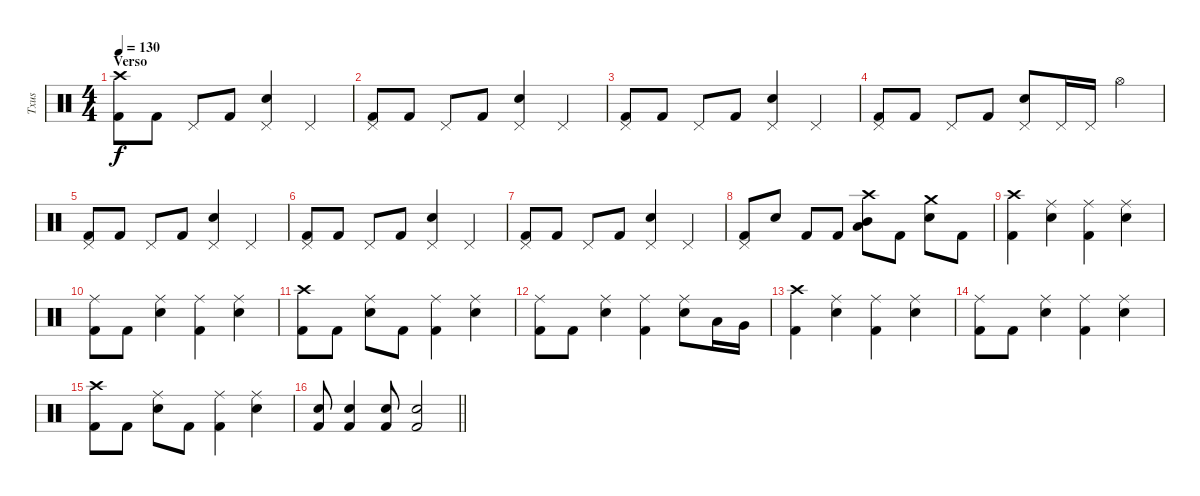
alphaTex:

\track ("Txus" "Txus") {instrument percussion}
\staff {score}
\articulation defaults
\ts (4 4)
\section ("" "Verso")
\tempo 130
\clef neutral
\ks c
("Crash high (hit)" "Kick (hit) 2").8{dy f} "Kick (hit) 2".8 "Pedal Hi-Hat (hit)".8 "Kick (hit) 2".8 ("Pedal Hi-Hat (hit)" "Electric Snare (hit)").4 "Pedal Hi-Hat (hit)".4 |
("Pedal Hi-Hat (hit)" "Kick (hit) 2").8 "Kick (hit) 2".8 "Pedal Hi-Hat (hit)".8 "Kick (hit) 2".8 ("Pedal Hi-Hat (hit)" "Electric Snare (hit)").4 "Pedal Hi-Hat (hit)".4 |
("Pedal Hi-Hat (hit)" "Kick (hit) 2").8 "Kick (hit) 2".8 "Pedal Hi-Hat (hit)".8 "Kick (hit) 2".8 ("Pedal Hi-Hat (hit)" "Electric Snare (hit)").4 "Pedal Hi-Hat (hit)".4 |
("Pedal Hi-Hat (hit)" "Kick (hit) 2").8 "Kick (hit) 2".8 "Pedal Hi-Hat (hit)".8 "Kick (hit) 2".8 ("Pedal Hi-Hat (hit)" "Electric Snare (hit)").8 "Pedal Hi-Hat (hit)".16 "Pedal Hi-Hat (hit)".16 "Hi-Hat (open)".4 |
("Pedal Hi-Hat (hit)" "Kick (hit) 2").8 "Kick (hit) 2".8 "Pedal Hi-Hat (hit)".8 "Kick (hit) 2".8 ("Pedal Hi-Hat (hit)" "Electric Snare (hit)").4 "Pedal Hi-Hat (hit)".4 |
("Pedal Hi-Hat (hit)" "Kick (hit) 2").8 "Kick (hit) 2".8 "Pedal Hi-Hat (hit)".8 "Kick (hit) 2".8 ("Pedal Hi-Hat (hit)" "Electric Snare (hit)").4 "Pedal Hi-Hat (hit)".4 |
("Pedal Hi-Hat (hit)" "Kick (hit) 2").8 "Kick (hit) 2".8 "Pedal Hi-Hat (hit)".8 "Kick (hit) 2".8 ("Pedal Hi-Hat (hit)" "Electric Snare (hit)").4 "Pedal Hi-Hat (hit)".4 |
("Pedal Hi-Hat (hit)" "Kick (hit) 2").8 "Electric Snare (hit)".8 "Kick (hit) 2".8 "Kick (hit) 2".8 ("Crash high (hit)" "Low Tom (hit)" "Mid Tom (hit)").8 "Kick (hit) 2".8 ("Crash medium (hit)" "Electric Snare (hit)").8 "Kick (hit) 2".8 |
("Crash high (hit)" "Kick (hit) 2").4 ("Ride (middle)" "Electric Snare (hit)").4 ("Ride (middle)" "Kick (hit) 2").4 ("Ride (middle)" "Electric Snare (hit)").4 |
("Ride (middle)" "Kick (hit) 2").8 "Kick (hit) 2".8 ("Ride (middle)" "Electric Snare (hit)").4 ("Ride (middle)" "Kick (hit) 2").4 ("Ride (middle)" "Electric Snare (hit)").4 |
("Crash high (hit)" "Kick (hit) 2").8 "Kick (hit) 2".8 ("Ride (middle)" "Electric Snare (hit)").8 "Kick (hit) 2".8 ("Ride (middle)" "Kick (hit) 2").4 ("Ride (middle)" "Electric Snare (hit)").4 |
("Ride (middle)" "Kick (hit) 2").8 "Kick (hit) 2".8 ("Ride (middle)" "Electric Snare (hit)").4 ("Ride (middle)" "Kick (hit) 2").4 ("Ride (middle)" "Electric Snare (hit)").8 "Low Tom (hit)".16 "Very Low Tom (hit)".16 |
("Crash high (hit)" "Kick (hit) 2").4 ("Ride (middle)" "Electric Snare (hit)").4 ("Ride (middle)" "Kick (hit) 2").4 ("Ride (middle)" "Electric Snare (hit)").4 |
("Ride (middle)" "Kick (hit) 2").8 "Kick (hit) 2".8 ("Ride (middle)" "Electric Snare (hit)").4 ("Ride (middle)" "Kick (hit) 2").4 ("Ride (middle)" "Electric Snare (hit)").4 |
("Crash high (hit)" "Kick (hit) 2").8 "Kick (hit) 2".8 ("Ride (middle)" "Electric Snare (hit)").8 "Kick (hit) 2".8 ("Ride (middle)" "Kick (hit) 2").4 ("Ride (middle)" "Electric Snare (hit)").4 |
\barLineRight lightlight
("Electric Snare (hit)" "Kick (hit) 2").8 ("Electric Snare (hit)" "Kick (hit) 2").4 ("Electric Snare (hit)" "Kick (hit) 2").8 ("Electric Snare (hit)" "Kick (hit) 2").2
